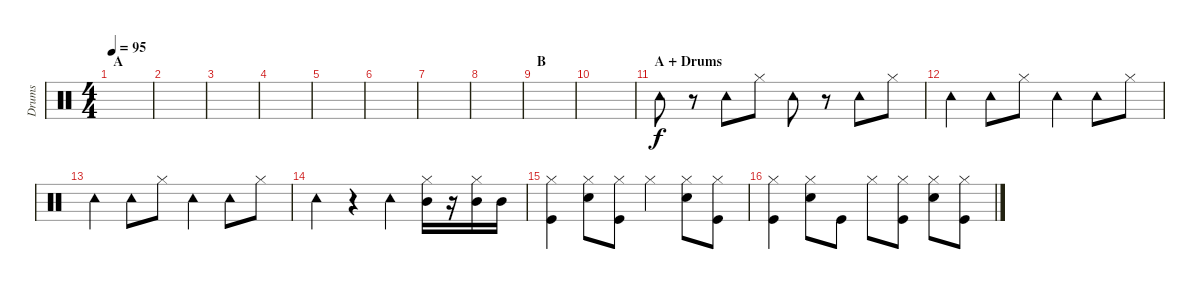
\track ("Drums" "Drums") {instrument percussion}
\staff {score}
\articulation defaults
\ts (4 4)
\section ("" "A")
\tempo 95
\clef neutral
\ks c
|
|
|
|
|
|
|
|
\section ("" "B")
|
|
\section ("" "A + Drums")
"Tambourine (hit)".8 r.8 "Tambourine (hit)".8 "Hi-Hat (closed)".8 "Tambourine (hit)".8 r.8 "Tambourine (hit)".8 "Hi-Hat (closed)".8 |
"Tambourine (hit)".4 "Tambourine (hit)".8 "Hi-Hat (closed)".8 "Tambourine (hit)".4 "Tambourine (hit)".8 "Hi-Hat (closed)".8 |
"Tambourine (hit)".4 "Tambourine (hit)".8 "Hi-Hat (closed)".8 "Tambourine (hit)".4 "Tambourine (hit)".8 "Hi-Hat (closed)".8 |
"Tambourine (hit)".4 r.4 "Tambourine (hit)".4 ("Mid Tom (hit)" "Hi-Hat (closed)").16 r.16 ("Mid Tom (hit)" "Hi-Hat (closed)").16 "Mid Tom (hit)".16 |
("Kick (hit)" "Hi-Hat (closed)").4 ("Snare (hit) 2" "Hi-Hat (closed)").8 ("Kick (hit)" "Hi-Hat (closed)").8 "Hi-Hat (closed)".4 ("Snare (hit) 2" "Hi-Hat (closed)").8 ("Kick (hit)" "Hi-Hat (closed)").8 |
("Kick (hit)" "Hi-Hat (closed)").4 ("Snare (hit) 2" "Hi-Hat (closed)").8 "Kick (hit)".8 "Hi-Hat (closed)".8 ("Kick (hit)" "Hi-Hat (closed)").8 ("Snare (hit) 2" "Hi-Hat (closed)").8 ("Kick (hit)" "Hi-Hat (closed)").8
